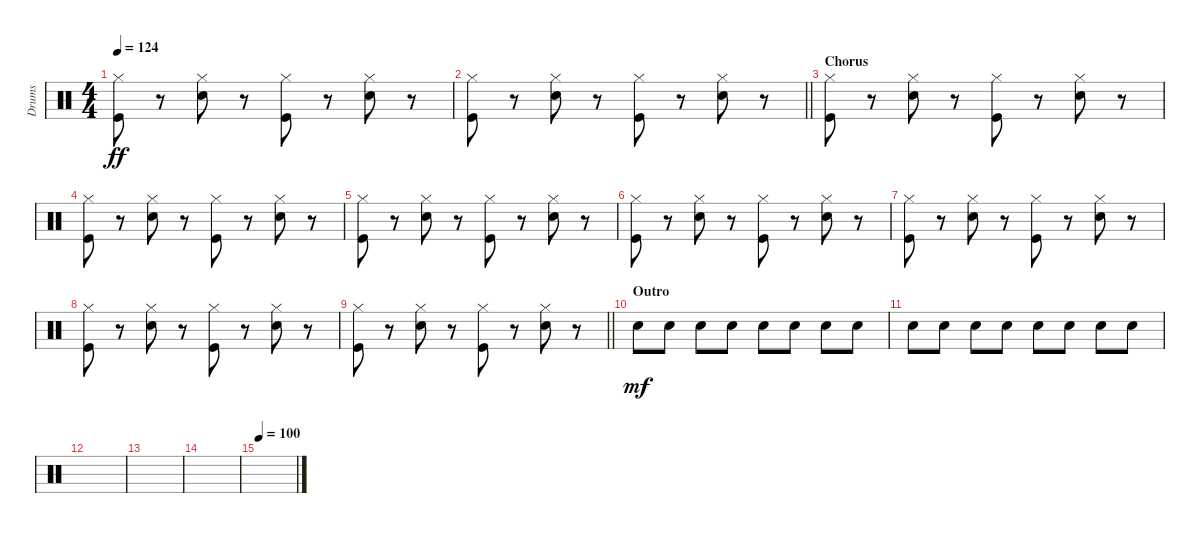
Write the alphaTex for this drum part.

\track ("Drums" "Drums") {instrument percussion}
\staff {score}
\articulation defaults
\ts (4 4)
\tempo 124
\clef neutral
\ks c
("Hi-Hat (closed)" "Kick (hit)").8{dy ff} r.8 ("Hi-Hat (closed)" "Snare (hit) 2").8 r.8 ("Hi-Hat (closed)" "Kick (hit)").8 r.8 ("Hi-Hat (closed)" "Snare (hit) 2").8 r.8 |
\barLineRight lightlight
("Hi-Hat (closed)" "Kick (hit)").8 r.8 ("Hi-Hat (closed)" "Snare (hit) 2").8 r.8 ("Hi-Hat (closed)" "Kick (hit)").8 r.8 ("Hi-Hat (closed)" "Snare (hit) 2").8 r.8 |
\section ("" "Chorus")
("Hi-Hat (closed)" "Kick (hit)").8 r.8 ("Hi-Hat (closed)" "Snare (hit) 2").8 r.8 ("Hi-Hat (closed)" "Kick (hit)").8 r.8 ("Hi-Hat (closed)" "Snare (hit) 2").8 r.8 |
("Hi-Hat (closed)" "Kick (hit)").8 r.8 ("Hi-Hat (closed)" "Snare (hit) 2").8 r.8 ("Hi-Hat (closed)" "Kick (hit)").8 r.8 ("Hi-Hat (closed)" "Snare (hit) 2").8 r.8 |
("Hi-Hat (closed)" "Kick (hit)").8 r.8 ("Hi-Hat (closed)" "Snare (hit) 2").8 r.8 ("Hi-Hat (closed)" "Kick (hit)").8 r.8 ("Hi-Hat (closed)" "Snare (hit) 2").8 r.8 |
("Hi-Hat (closed)" "Kick (hit)").8 r.8 ("Hi-Hat (closed)" "Snare (hit) 2").8 r.8 ("Hi-Hat (closed)" "Kick (hit)").8 r.8 ("Hi-Hat (closed)" "Snare (hit) 2").8 r.8 |
("Hi-Hat (closed)" "Kick (hit)").8 r.8 ("Hi-Hat (closed)" "Snare (hit) 2").8 r.8 ("Hi-Hat (closed)" "Kick (hit)").8 r.8 ("Hi-Hat (closed)" "Snare (hit) 2").8 r.8 |
("Hi-Hat (closed)" "Kick (hit)").8 r.8 ("Hi-Hat (closed)" "Snare (hit) 2").8 r.8 ("Hi-Hat (closed)" "Kick (hit)").8 r.8 ("Hi-Hat (closed)" "Snare (hit) 2").8 r.8 |
\barLineRight lightlight
("Hi-Hat (closed)" "Kick (hit)").8 r.8 ("Hi-Hat (closed)" "Snare (hit) 2").8 r.8 ("Hi-Hat (closed)" "Kick (hit)").8 r.8 ("Hi-Hat (closed)" "Snare (hit) 2").8 r.8 |
\section ("" "Outro")
"Snare (hit) 2".8{dy mf} "Snare (hit) 2".8 "Snare (hit) 2".8 "Snare (hit) 2".8 "Snare (hit) 2".8 "Snare (hit) 2".8 "Snare (hit) 2".8 "Snare (hit) 2".8 |
"Snare (hit) 2".8 "Snare (hit) 2".8 "Snare (hit) 2".8 "Snare (hit) 2".8 "Snare (hit) 2".8 "Snare (hit) 2".8 "Snare (hit) 2".8 "Snare (hit) 2".8 |
|
|
|
\tempo 100
